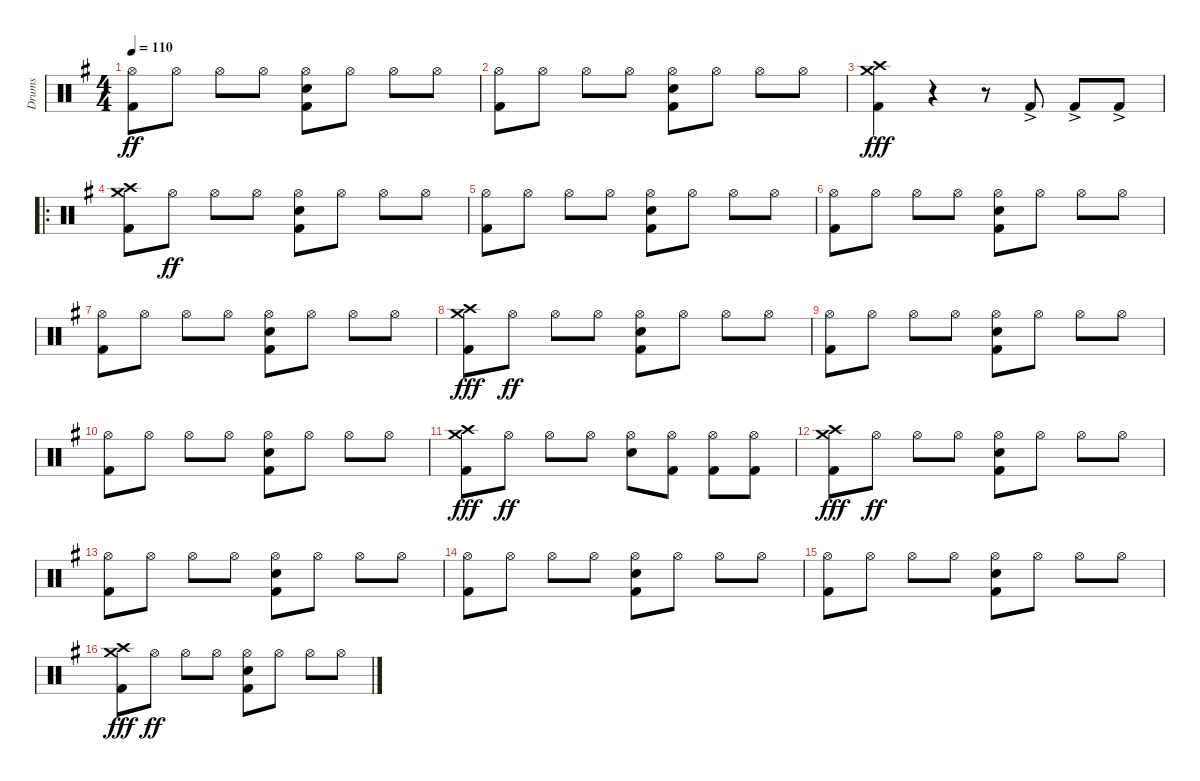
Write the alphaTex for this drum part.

\track ("Drums" "Drums") {instrument percussion}
\staff {score}
\articulation defaults
\ts (4 4)
\tempo 110
\clef neutral
\ks eminor
("Kick (hit) 2" "Hi-Hat (open)").8{dy ff} "Hi-Hat (open)".8 "Hi-Hat (open)".8 "Hi-Hat (open)".8 ("Kick (hit) 2" "Electric Snare (hit)" "Hi-Hat (open)").8 "Hi-Hat (open)".8 "Hi-Hat (open)".8 "Hi-Hat (open)".8 |
("Kick (hit) 2" "Hi-Hat (open)").8 "Hi-Hat (open)".8 "Hi-Hat (open)".8 "Hi-Hat (open)".8 ("Kick (hit) 2" "Electric Snare (hit)" "Hi-Hat (open)").8 "Hi-Hat (open)".8 "Hi-Hat (open)".8 "Hi-Hat (open)".8 |
("Crash high (hit)" "Kick (hit) 2" "Crash medium (hit)").4{dy fff} r.4 r.8 "Kick (hit) 2"{ac}.8 "Kick (hit) 2"{ac}.8 "Kick (hit) 2"{ac}.8 |
\ro
("Kick (hit) 2" "Crash high (hit)" "Crash medium (hit)").8 "Hi-Hat (open)".8{dy ff} "Hi-Hat (open)".8 "Hi-Hat (open)".8 ("Kick (hit) 2" "Electric Snare (hit)" "Hi-Hat (open)").8 "Hi-Hat (open)".8 "Hi-Hat (open)".8 "Hi-Hat (open)".8 |
("Kick (hit) 2" "Hi-Hat (open)").8 "Hi-Hat (open)".8 "Hi-Hat (open)".8 "Hi-Hat (open)".8 ("Kick (hit) 2" "Electric Snare (hit)" "Hi-Hat (open)").8 "Hi-Hat (open)".8 "Hi-Hat (open)".8 "Hi-Hat (open)".8 |
("Kick (hit) 2" "Hi-Hat (open)").8 "Hi-Hat (open)".8 "Hi-Hat (open)".8 "Hi-Hat (open)".8 ("Kick (hit) 2" "Electric Snare (hit)" "Hi-Hat (open)").8 "Hi-Hat (open)".8 "Hi-Hat (open)".8 "Hi-Hat (open)".8 |
("Kick (hit) 2" "Hi-Hat (open)").8 "Hi-Hat (open)".8 "Hi-Hat (open)".8 "Hi-Hat (open)".8 ("Kick (hit) 2" "Electric Snare (hit)" "Hi-Hat (open)").8 "Hi-Hat (open)".8 "Hi-Hat (open)".8 "Hi-Hat (open)".8 |
("Kick (hit) 2" "Crash high (hit)" "Crash medium (hit)").8{dy fff} "Hi-Hat (open)".8{dy ff} "Hi-Hat (open)".8 "Hi-Hat (open)".8 ("Kick (hit) 2" "Electric Snare (hit)" "Hi-Hat (open)").8 "Hi-Hat (open)".8 "Hi-Hat (open)".8 "Hi-Hat (open)".8 |
("Kick (hit) 2" "Hi-Hat (open)").8 "Hi-Hat (open)".8 "Hi-Hat (open)".8 "Hi-Hat (open)".8 ("Kick (hit) 2" "Electric Snare (hit)" "Hi-Hat (open)").8 "Hi-Hat (open)".8 "Hi-Hat (open)".8 "Hi-Hat (open)".8 |
("Kick (hit) 2" "Hi-Hat (open)").8 "Hi-Hat (open)".8 "Hi-Hat (open)".8 "Hi-Hat (open)".8 ("Kick (hit) 2" "Electric Snare (hit)" "Hi-Hat (open)").8 "Hi-Hat (open)".8 "Hi-Hat (open)".8 "Hi-Hat (open)".8 |
("Kick (hit) 2" "Crash high (hit)" "Crash medium (hit)").8{dy fff} "Hi-Hat (open)".8{dy ff} "Hi-Hat (open)".8 "Hi-Hat (open)".8 ("Electric Snare (hit)" "Hi-Hat (open)").8 ("Kick (hit) 2" "Hi-Hat (open)").8 ("Kick (hit) 2" "Hi-Hat (open)").8 ("Kick (hit) 2" "Hi-Hat (open)").8 |
("Kick (hit) 2" "Crash high (hit)" "Crash medium (hit)").8{dy fff} "Hi-Hat (open)".8{dy ff} "Hi-Hat (open)".8 "Hi-Hat (open)".8 ("Kick (hit) 2" "Electric Snare (hit)" "Hi-Hat (open)").8 "Hi-Hat (open)".8 "Hi-Hat (open)".8 "Hi-Hat (open)".8 |
("Kick (hit) 2" "Hi-Hat (open)").8 "Hi-Hat (open)".8 "Hi-Hat (open)".8 "Hi-Hat (open)".8 ("Kick (hit) 2" "Electric Snare (hit)" "Hi-Hat (open)").8 "Hi-Hat (open)".8 "Hi-Hat (open)".8 "Hi-Hat (open)".8 |
("Kick (hit) 2" "Hi-Hat (open)").8 "Hi-Hat (open)".8 "Hi-Hat (open)".8 "Hi-Hat (open)".8 ("Kick (hit) 2" "Electric Snare (hit)" "Hi-Hat (open)").8 "Hi-Hat (open)".8 "Hi-Hat (open)".8 "Hi-Hat (open)".8 |
("Kick (hit) 2" "Hi-Hat (open)").8 "Hi-Hat (open)".8 "Hi-Hat (open)".8 "Hi-Hat (open)".8 ("Kick (hit) 2" "Electric Snare (hit)" "Hi-Hat (open)").8 "Hi-Hat (open)".8 "Hi-Hat (open)".8 "Hi-Hat (open)".8 |
("Kick (hit) 2" "Crash high (hit)" "Crash medium (hit)").8{dy fff} "Hi-Hat (open)".8{dy ff} "Hi-Hat (open)".8 "Hi-Hat (open)".8 ("Kick (hit) 2" "Electric Snare (hit)" "Hi-Hat (open)").8 "Hi-Hat (open)".8 "Hi-Hat (open)".8 "Hi-Hat (open)".8
